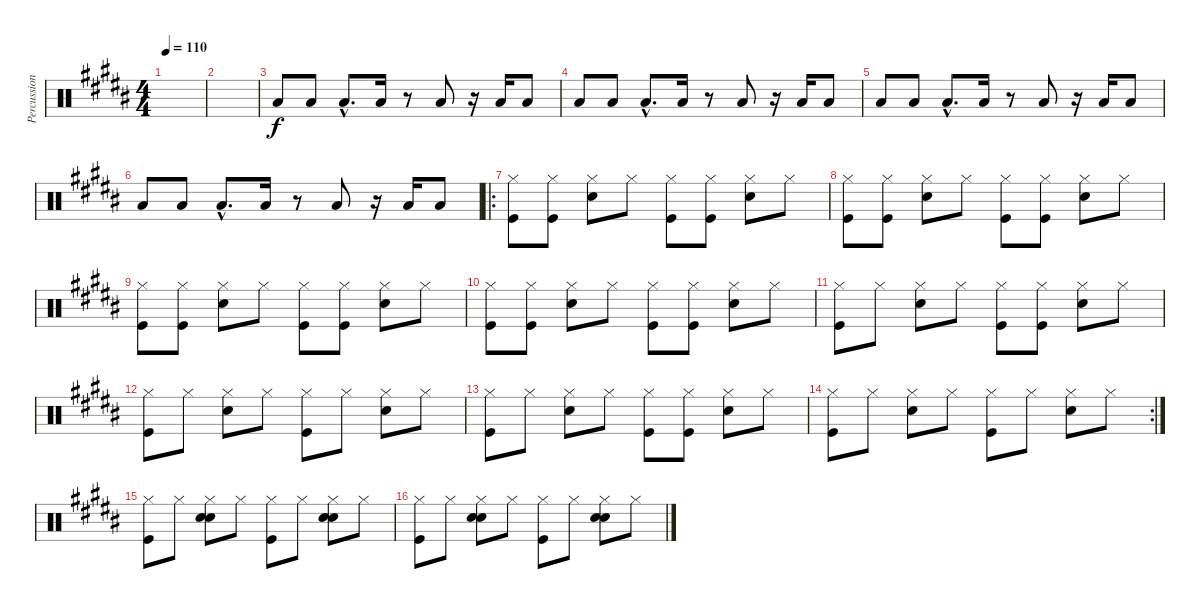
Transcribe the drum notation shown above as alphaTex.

\track ("Percussions" "Percussion") {instrument percussion}
\staff {score}
\articulation defaults
\ts (4 4)
\tempo 110
\clef neutral
\ks b
|
|
"Low Floor Tom (hit)".8 "Low Floor Tom (hit)".8 "Low Floor Tom (hit)"{hac}.8{d} "Low Floor Tom (hit)".16 r.8 "Low Floor Tom (hit)".8 r.16 "Low Floor Tom (hit)".16 "Low Floor Tom (hit)".8 |
"Low Floor Tom (hit)".8 "Low Floor Tom (hit)".8 "Low Floor Tom (hit)"{hac}.8{d} "Low Floor Tom (hit)".16 r.8 "Low Floor Tom (hit)".8 r.16 "Low Floor Tom (hit)".16 "Low Floor Tom (hit)".8 |
"Low Floor Tom (hit)".8 "Low Floor Tom (hit)".8 "Low Floor Tom (hit)"{hac}.8{d} "Low Floor Tom (hit)".16 r.8 "Low Floor Tom (hit)".8 r.16 "Low Floor Tom (hit)".16 "Low Floor Tom (hit)".8 |
"Low Floor Tom (hit)".8 "Low Floor Tom (hit)".8 "Low Floor Tom (hit)"{hac}.8{d} "Low Floor Tom (hit)".16 r.8 "Low Floor Tom (hit)".8 r.16 "Low Floor Tom (hit)".16 "Low Floor Tom (hit)".8 |
\ro
("Hi-Hat (closed)" "Kick (hit)").8 ("Hi-Hat (closed)" "Kick (hit)").8 ("Hi-Hat (closed)" "Snare (hit) 2").8 "Hi-Hat (closed)".8 ("Hi-Hat (closed)" "Kick (hit)").8 ("Hi-Hat (closed)" "Kick (hit)").8 ("Hi-Hat (closed)" "Snare (hit) 2").8 "Hi-Hat (closed)".8 |
("Hi-Hat (closed)" "Kick (hit)").8 ("Hi-Hat (closed)" "Kick (hit)").8 ("Hi-Hat (closed)" "Snare (hit) 2").8 "Hi-Hat (closed)".8 ("Hi-Hat (closed)" "Kick (hit)").8 ("Hi-Hat (closed)" "Kick (hit)").8 ("Hi-Hat (closed)" "Snare (hit) 2").8 "Hi-Hat (closed)".8 |
("Hi-Hat (closed)" "Kick (hit)").8 ("Hi-Hat (closed)" "Kick (hit)").8 ("Hi-Hat (closed)" "Snare (hit) 2").8 "Hi-Hat (closed)".8 ("Hi-Hat (closed)" "Kick (hit)").8 ("Hi-Hat (closed)" "Kick (hit)").8 ("Hi-Hat (closed)" "Snare (hit) 2").8 "Hi-Hat (closed)".8 |
("Hi-Hat (closed)" "Kick (hit)").8 ("Hi-Hat (closed)" "Kick (hit)").8 ("Hi-Hat (closed)" "Snare (hit) 2").8 "Hi-Hat (closed)".8 ("Hi-Hat (closed)" "Kick (hit)").8 ("Hi-Hat (closed)" "Kick (hit)").8 ("Hi-Hat (closed)" "Snare (hit) 2").8 "Hi-Hat (closed)".8 |
("Hi-Hat (closed)" "Kick (hit)").8 "Hi-Hat (closed)".8 ("Hi-Hat (closed)" "Snare (hit) 2").8 "Hi-Hat (closed)".8 ("Hi-Hat (closed)" "Kick (hit)").8 ("Hi-Hat (closed)" "Kick (hit)").8 ("Hi-Hat (closed)" "Snare (hit) 2").8 "Hi-Hat (closed)".8 |
("Hi-Hat (closed)" "Kick (hit)").8 "Hi-Hat (closed)".8 ("Hi-Hat (closed)" "Snare (hit) 2").8 "Hi-Hat (closed)".8 ("Hi-Hat (closed)" "Kick (hit)").8 "Hi-Hat (closed)".8 ("Hi-Hat (closed)" "Snare (hit) 2").8 "Hi-Hat (closed)".8 |
("Hi-Hat (closed)" "Kick (hit)").8 "Hi-Hat (closed)".8 ("Hi-Hat (closed)" "Snare (hit) 2").8 "Hi-Hat (closed)".8 ("Hi-Hat (closed)" "Kick (hit)").8 ("Hi-Hat (closed)" "Kick (hit)").8 ("Hi-Hat (closed)" "Snare (hit) 2").8 "Hi-Hat (closed)".8 |
\rc 2
("Hi-Hat (closed)" "Kick (hit)").8 "Hi-Hat (closed)".8 ("Hi-Hat (closed)" "Snare (hit) 2").8 "Hi-Hat (closed)".8 ("Hi-Hat (closed)" "Kick (hit)").8 "Hi-Hat (closed)".8 ("Hi-Hat (closed)" "Snare (hit) 2").8 "Hi-Hat (closed)".8 |
("Hi-Hat (closed)" "Kick (hit)").8 "Hi-Hat (closed)".8 ("Hi-Hat (closed)" "Snare (hit) 2" "Snare (hit) 2").8 "Hi-Hat (closed)".8 ("Hi-Hat (closed)" "Kick (hit)").8 "Hi-Hat (closed)".8 ("Hi-Hat (closed)" "Snare (hit) 2" "Snare (hit) 2").8 "Hi-Hat (closed)".8 |
("Hi-Hat (closed)" "Kick (hit)").8 "Hi-Hat (closed)".8 ("Hi-Hat (closed)" "Snare (hit) 2" "Snare (hit) 2").8 "Hi-Hat (closed)".8 ("Hi-Hat (closed)" "Kick (hit)").8 "Hi-Hat (closed)".8 ("Hi-Hat (closed)" "Snare (hit) 2" "Snare (hit) 2").8 "Hi-Hat (closed)".8
